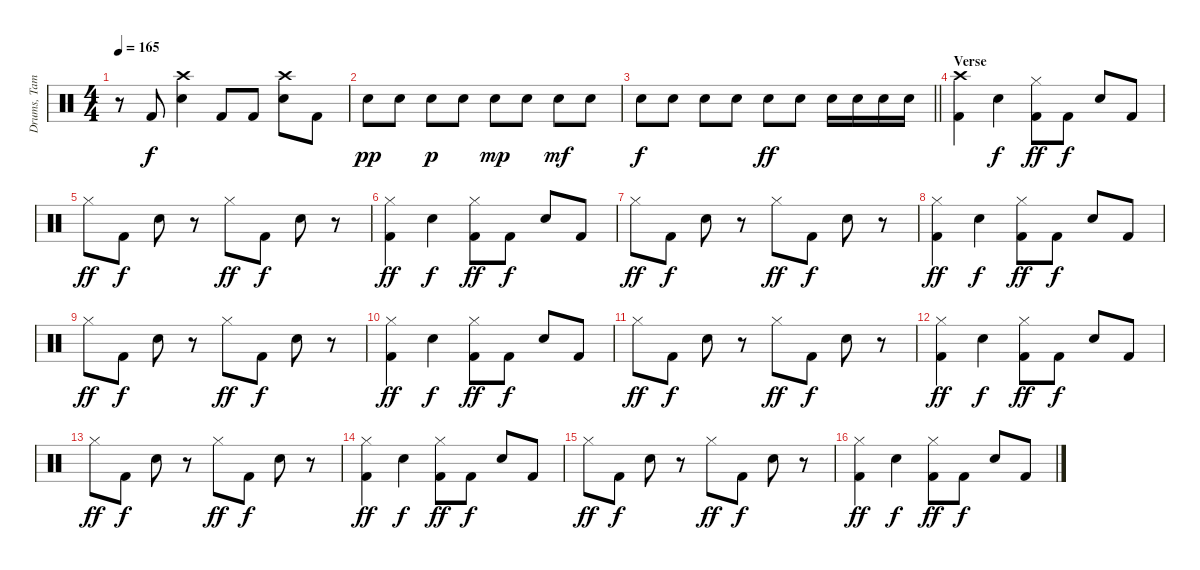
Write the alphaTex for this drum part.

\track ("Drums, Tambourine, Castinets" "Drums, Tam") {instrument percussion}
\staff {score}
\articulation defaults
\ts (4 4)
\tempo 165
\clef neutral
\ks c
r.8{dy f} "Kick (hit) 2".8 ("Crash high (hit)" "Snare (hit) 2").4 "Kick (hit) 2".8 "Kick (hit) 2".8 ("Crash high (hit)" "Snare (hit) 2").8 "Kick (hit) 2".8 |
"Snare (hit) 2".8{dy pp} "Snare (hit) 2".8 "Snare (hit) 2".8{dy p} "Snare (hit) 2".8 "Snare (hit) 2".8{dy mp} "Snare (hit) 2".8 "Snare (hit) 2".8{dy mf} "Snare (hit) 2".8 |
\barLineRight lightlight "Snare (hit) 2".8{dy f} "Snare (hit) 2".8 "Snare (hit) 2".8 "Snare (hit) 2".8 "Snare (hit) 2".8{dy ff} "Snare (hit) 2".8 "Snare (hit) 2".16 "Snare (hit) 2".16 "Snare (hit) 2".16 "Snare (hit) 2".16
|
\section ("" "Verse")
("Crash high (hit)" "Kick (hit) 2").4 "Snare (hit) 2".4{dy f} ("Hi-Hat (closed)" "Kick (hit) 2").8{dy ff} "Kick (hit) 2".8{dy f} "Snare (hit) 2".8 "Kick (hit) 2".8 |
"Hi-Hat (closed)".8{dy ff} "Kick (hit) 2".8{dy f} "Snare (hit) 2".8 r.8 "Hi-Hat (closed)".8{dy ff} "Kick (hit) 2".8{dy f} "Snare (hit) 2".8 r.8 |
("Hi-Hat (closed)" "Kick (hit) 2").4{dy ff} "Snare (hit) 2".4{dy f} ("Hi-Hat (closed)" "Kick (hit) 2").8{dy ff} "Kick (hit) 2".8{dy f} "Snare (hit) 2".8 "Kick (hit) 2".8 |
"Hi-Hat (closed)".8{dy ff} "Kick (hit) 2".8{dy f} "Snare (hit) 2".8 r.8 "Hi-Hat (closed)".8{dy ff} "Kick (hit) 2".8{dy f} "Snare (hit) 2".8 r.8 |
("Hi-Hat (closed)" "Kick (hit) 2").4{dy ff} "Snare (hit) 2".4{dy f} ("Hi-Hat (closed)" "Kick (hit) 2").8{dy ff} "Kick (hit) 2".8{dy f} "Snare (hit) 2".8 "Kick (hit) 2".8 |
"Hi-Hat (closed)".8{dy ff} "Kick (hit) 2".8{dy f} "Snare (hit) 2".8 r.8 "Hi-Hat (closed)".8{dy ff} "Kick (hit) 2".8{dy f} "Snare (hit) 2".8 r.8 |
("Hi-Hat (closed)" "Kick (hit) 2").4{dy ff} "Snare (hit) 2".4{dy f} ("Hi-Hat (closed)" "Kick (hit) 2").8{dy ff} "Kick (hit) 2".8{dy f} "Snare (hit) 2".8 "Kick (hit) 2".8 |
"Hi-Hat (closed)".8{dy ff} "Kick (hit) 2".8{dy f} "Snare (hit) 2".8 r.8 "Hi-Hat (closed)".8{dy ff} "Kick (hit) 2".8{dy f} "Snare (hit) 2".8 r.8 |
("Hi-Hat (closed)" "Kick (hit) 2").4{dy ff} "Snare (hit) 2".4{dy f} ("Hi-Hat (closed)" "Kick (hit) 2").8{dy ff} "Kick (hit) 2".8{dy f} "Snare (hit) 2".8 "Kick (hit) 2".8 |
"Hi-Hat (closed)".8{dy ff} "Kick (hit) 2".8{dy f} "Snare (hit) 2".8 r.8 "Hi-Hat (closed)".8{dy ff} "Kick (hit) 2".8{dy f} "Snare (hit) 2".8 r.8 |
("Hi-Hat (closed)" "Kick (hit) 2").4{dy ff} "Snare (hit) 2".4{dy f} ("Hi-Hat (closed)" "Kick (hit) 2").8{dy ff} "Kick (hit) 2".8{dy f} "Snare (hit) 2".8 "Kick (hit) 2".8 |
"Hi-Hat (closed)".8{dy ff} "Kick (hit) 2".8{dy f} "Snare (hit) 2".8 r.8 "Hi-Hat (closed)".8{dy ff} "Kick (hit) 2".8{dy f} "Snare (hit) 2".8 r.8 |
("Hi-Hat (closed)" "Kick (hit) 2").4{dy ff} "Snare (hit) 2".4{dy f} ("Hi-Hat (closed)" "Kick (hit) 2").8{dy ff} "Kick (hit) 2".8{dy f} "Snare (hit) 2".8 "Kick (hit) 2".8
